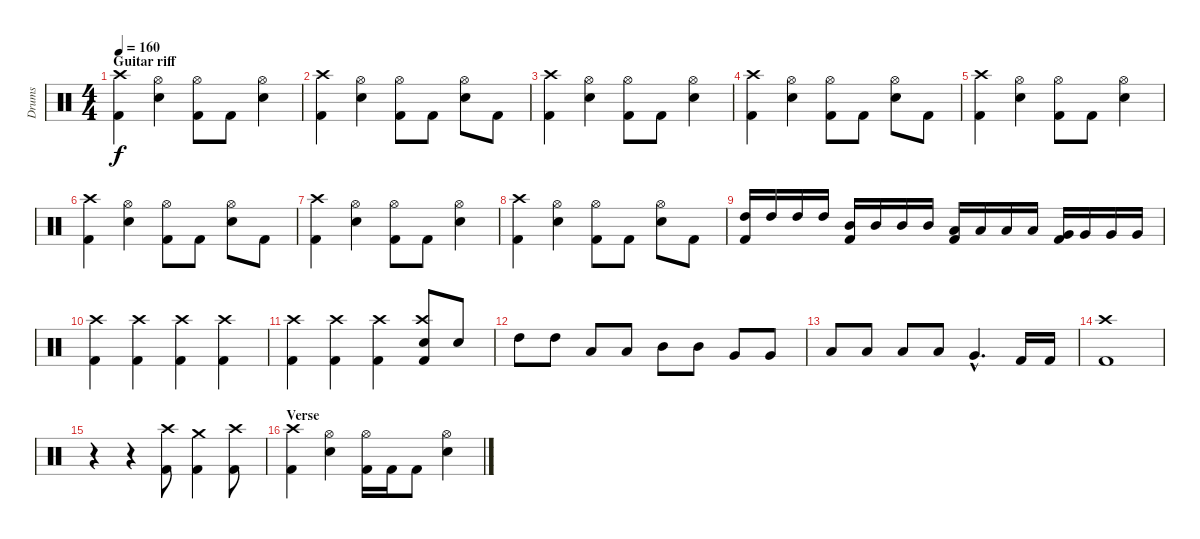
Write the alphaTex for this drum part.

\track ("Drums" "Drums") {instrument percussion}
\staff {score}
\articulation defaults
\ts (4 4)
\section ("" "Guitar riff")
\tempo 160
\clef neutral
\ks c
("Kick (hit) 2" "Crash high (hit)").4{dy f} ("Electric Snare (hit)" "Hi-Hat (open)").4 ("Kick (hit) 2" "Hi-Hat (open)").8 "Kick (hit) 2".8 ("Electric Snare (hit)" "Hi-Hat (open)").4 |
("Kick (hit) 2" "Crash high (hit)").4 ("Electric Snare (hit)" "Hi-Hat (open)").4 ("Kick (hit) 2" "Hi-Hat (open)").8 "Kick (hit) 2".8 ("Electric Snare (hit)" "Hi-Hat (open)").8 "Kick (hit) 2".8 |
("Kick (hit) 2" "Crash high (hit)").4 ("Electric Snare (hit)" "Hi-Hat (open)").4 ("Kick (hit) 2" "Hi-Hat (open)").8 "Kick (hit) 2".8 ("Electric Snare (hit)" "Hi-Hat (open)").4 |
("Kick (hit) 2" "Crash high (hit)").4 ("Electric Snare (hit)" "Hi-Hat (open)").4 ("Kick (hit) 2" "Hi-Hat (open)").8 "Kick (hit) 2".8 ("Electric Snare (hit)" "Hi-Hat (open)").8 "Kick (hit) 2".8 |
("Kick (hit) 2" "Crash high (hit)").4 ("Electric Snare (hit)" "Hi-Hat (open)").4 ("Kick (hit) 2" "Hi-Hat (open)").8 "Kick (hit) 2".8 ("Electric Snare (hit)" "Hi-Hat (open)").4 |
("Kick (hit) 2" "Crash high (hit)").4 ("Electric Snare (hit)" "Hi-Hat (open)").4 ("Kick (hit) 2" "Hi-Hat (open)").8 "Kick (hit) 2".8 ("Electric Snare (hit)" "Hi-Hat (open)").8 "Kick (hit) 2".8 |
("Kick (hit) 2" "Crash high (hit)").4 ("Electric Snare (hit)" "Hi-Hat (open)").4 ("Kick (hit) 2" "Hi-Hat (open)").8 "Kick (hit) 2".8 ("Electric Snare (hit)" "Hi-Hat (open)").4 |
("Kick (hit) 2" "Crash high (hit)").4 ("Electric Snare (hit)" "Hi-Hat (open)").4 ("Kick (hit) 2" "Hi-Hat (open)").8 "Kick (hit) 2".8 ("Electric Snare (hit)" "Hi-Hat (open)").8 "Kick (hit) 2".8 |
("Kick (hit) 2" "High Tom (hit)").16 "High Tom (hit)".16 "High Tom (hit)".16 "High Tom (hit)".16 ("Kick (hit) 2" "Mid Tom (hit)").16 "Mid Tom (hit)".16 "Mid Tom (hit)".16 "Mid Tom (hit)".16 ("Kick (hit) 2" "Low Tom (hit)").16 "Low Tom (hit)".16 "Low Tom (hit)".16 "Low Tom (hit)".16 ("Kick (hit) 2" "Very Low Tom (hit)").16 "Very Low Tom (hit)".16 "Very Low Tom (hit)".16 "Very Low Tom (hit)".16 |
("Kick (hit) 2" "Crash high (hit)").4 ("Kick (hit) 2" "Crash high (hit)").4 ("Kick (hit) 2" "Crash high (hit)").4 ("Kick (hit) 2" "Crash high (hit)").4 |
("Kick (hit) 2" "Crash high (hit)").4 ("Kick (hit) 2" "Crash high (hit)").4 ("Kick (hit) 2" "Crash high (hit)").4 ("Kick (hit) 2" "Electric Snare (hit)" "Crash high (hit)").8 "Electric Snare (hit)".8 |
"High Tom (hit)".8 "High Tom (hit)".8 "Low Tom (hit)".8 "Low Tom (hit)".8 "Mid Tom (hit)".8 "Mid Tom (hit)".8 "Very Low Tom (hit)".8 "Very Low Tom (hit)".8 |
"Low Tom (hit)".8 "Low Tom (hit)".8 "Low Floor Tom (hit)".8 "Low Floor Tom (hit)".8 "Very Low Tom (hit)"{hac}.4{d} "Kick (hit) 2".16 "Kick (hit) 2".16 |
("Kick (hit) 2" "Crash high (hit)").1 |
r.4 r.4 ("Kick (hit) 2" "Crash high (hit)").8 ("Kick (hit) 2" "Crash medium (hit)").4 ("Kick (hit) 2" "Crash high (hit)").8 |
\section ("" "Verse")
("Kick (hit) 2" "Crash high (hit)").4 ("Electric Snare (hit)" "Hi-Hat (open)").4 ("Kick (hit) 2" "Hi-Hat (open)").16 "Kick (hit) 2".16 "Kick (hit) 2".8 ("Electric Snare (hit)" "Hi-Hat (open)").4
